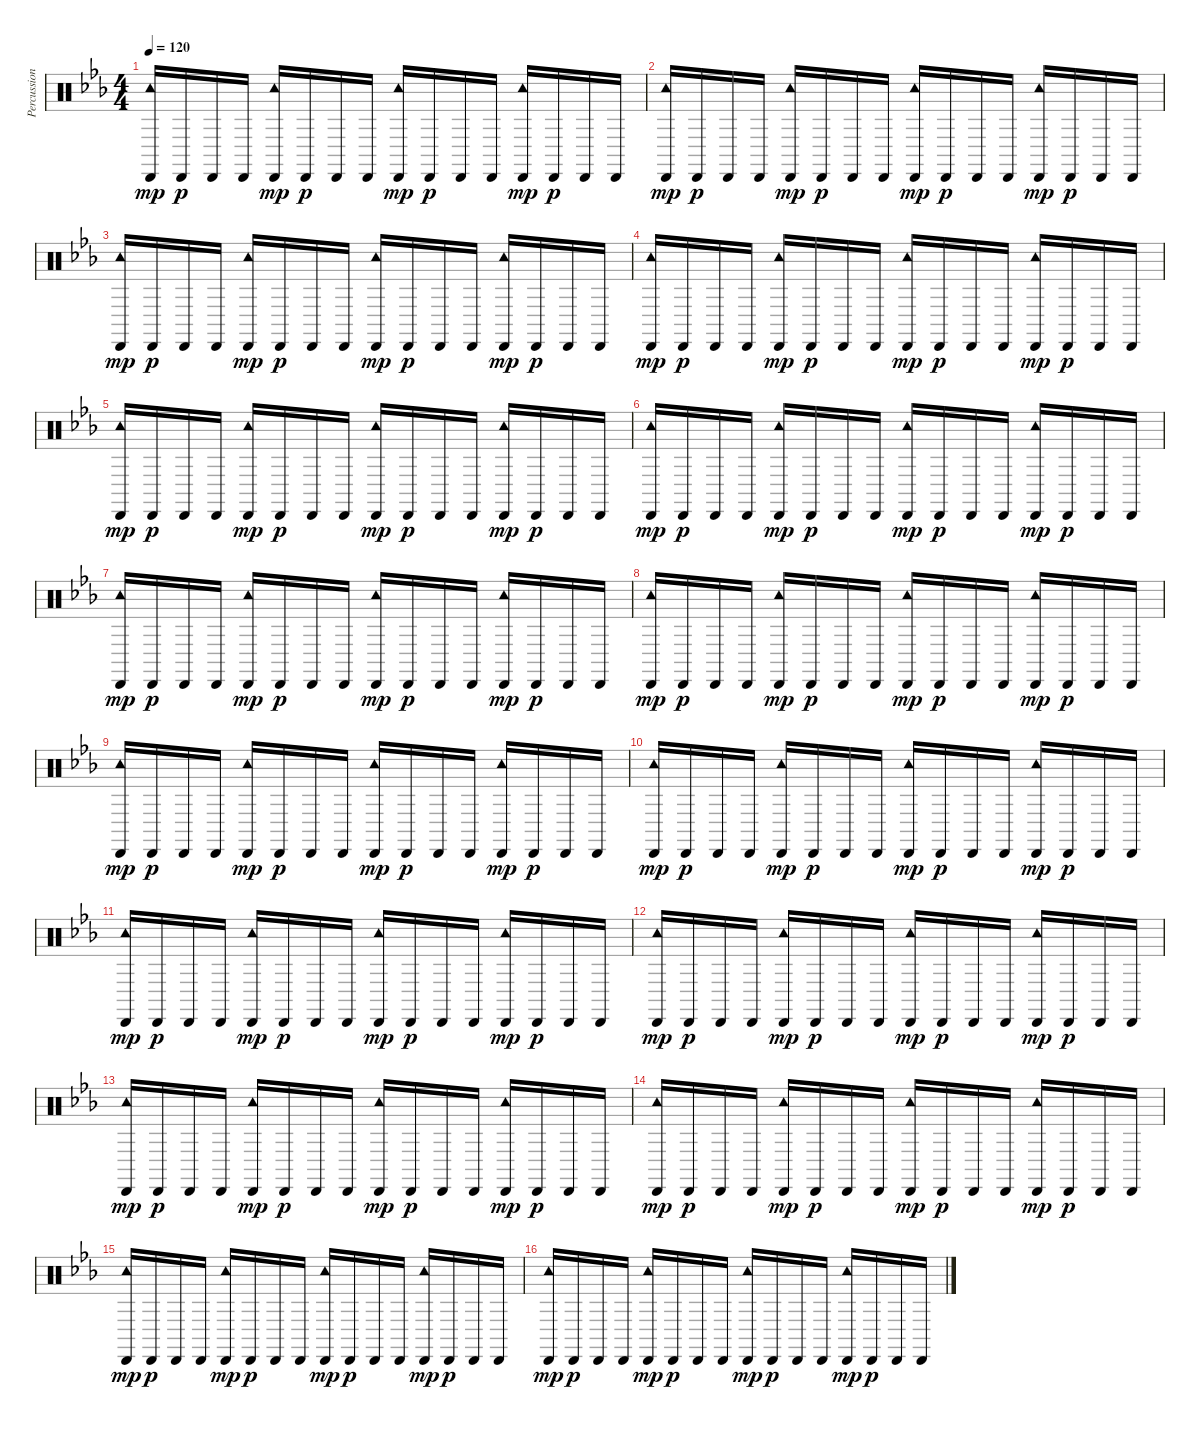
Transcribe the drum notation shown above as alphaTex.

\track ("Percussion" "Percussion") {instrument percussion}
\staff {score}
\articulation defaults
\ts (4 4)
\tempo 120
\clef neutral
\ks cminor
("Cabasa (hit)" "Tambourine (hit)").16{dy mp} "Cabasa (hit)".16{dy p} "Cabasa (hit)".16 "Cabasa (hit)".16 ("Cabasa (hit)" "Tambourine (hit)").16{dy mp} "Cabasa (hit)".16{dy p} "Cabasa (hit)".16 "Cabasa (hit)".16 ("Cabasa (hit)" "Tambourine (hit)").16{dy mp} "Cabasa (hit)".16{dy p} "Cabasa (hit)".16 "Cabasa (hit)".16 ("Cabasa (hit)" "Tambourine (hit)").16{dy mp} "Cabasa (hit)".16{dy p} "Cabasa (hit)".16 "Cabasa (hit)".16 |
("Cabasa (hit)" "Tambourine (hit)").16{dy mp} "Cabasa (hit)".16{dy p} "Cabasa (hit)".16 "Cabasa (hit)".16 ("Cabasa (hit)" "Tambourine (hit)").16{dy mp} "Cabasa (hit)".16{dy p} "Cabasa (hit)".16 "Cabasa (hit)".16 ("Cabasa (hit)" "Tambourine (hit)").16{dy mp} "Cabasa (hit)".16{dy p} "Cabasa (hit)".16 "Cabasa (hit)".16 ("Cabasa (hit)" "Tambourine (hit)").16{dy mp} "Cabasa (hit)".16{dy p} "Cabasa (hit)".16 "Cabasa (hit)".16 |
("Cabasa (hit)" "Tambourine (hit)").16{dy mp} "Cabasa (hit)".16{dy p} "Cabasa (hit)".16 "Cabasa (hit)".16 ("Cabasa (hit)" "Tambourine (hit)").16{dy mp} "Cabasa (hit)".16{dy p} "Cabasa (hit)".16 "Cabasa (hit)".16 ("Cabasa (hit)" "Tambourine (hit)").16{dy mp} "Cabasa (hit)".16{dy p} "Cabasa (hit)".16 "Cabasa (hit)".16 ("Cabasa (hit)" "Tambourine (hit)").16{dy mp} "Cabasa (hit)".16{dy p} "Cabasa (hit)".16 "Cabasa (hit)".16 |
("Cabasa (hit)" "Tambourine (hit)").16{dy mp} "Cabasa (hit)".16{dy p} "Cabasa (hit)".16 "Cabasa (hit)".16 ("Cabasa (hit)" "Tambourine (hit)").16{dy mp} "Cabasa (hit)".16{dy p} "Cabasa (hit)".16 "Cabasa (hit)".16 ("Cabasa (hit)" "Tambourine (hit)").16{dy mp} "Cabasa (hit)".16{dy p} "Cabasa (hit)".16 "Cabasa (hit)".16 ("Cabasa (hit)" "Tambourine (hit)").16{dy mp} "Cabasa (hit)".16{dy p} "Cabasa (hit)".16 "Cabasa (hit)".16 |
("Cabasa (hit)" "Tambourine (hit)").16{dy mp} "Cabasa (hit)".16{dy p} "Cabasa (hit)".16 "Cabasa (hit)".16 ("Cabasa (hit)" "Tambourine (hit)").16{dy mp} "Cabasa (hit)".16{dy p} "Cabasa (hit)".16 "Cabasa (hit)".16 ("Cabasa (hit)" "Tambourine (hit)").16{dy mp} "Cabasa (hit)".16{dy p} "Cabasa (hit)".16 "Cabasa (hit)".16 ("Cabasa (hit)" "Tambourine (hit)").16{dy mp} "Cabasa (hit)".16{dy p} "Cabasa (hit)".16 "Cabasa (hit)".16 |
("Cabasa (hit)" "Tambourine (hit)").16{dy mp} "Cabasa (hit)".16{dy p} "Cabasa (hit)".16 "Cabasa (hit)".16 ("Cabasa (hit)" "Tambourine (hit)").16{dy mp} "Cabasa (hit)".16{dy p} "Cabasa (hit)".16 "Cabasa (hit)".16 ("Cabasa (hit)" "Tambourine (hit)").16{dy mp} "Cabasa (hit)".16{dy p} "Cabasa (hit)".16 "Cabasa (hit)".16 ("Cabasa (hit)" "Tambourine (hit)").16{dy mp} "Cabasa (hit)".16{dy p} "Cabasa (hit)".16 "Cabasa (hit)".16 |
("Cabasa (hit)" "Tambourine (hit)").16{dy mp} "Cabasa (hit)".16{dy p} "Cabasa (hit)".16 "Cabasa (hit)".16 ("Cabasa (hit)" "Tambourine (hit)").16{dy mp} "Cabasa (hit)".16{dy p} "Cabasa (hit)".16 "Cabasa (hit)".16 ("Cabasa (hit)" "Tambourine (hit)").16{dy mp} "Cabasa (hit)".16{dy p} "Cabasa (hit)".16 "Cabasa (hit)".16 ("Cabasa (hit)" "Tambourine (hit)").16{dy mp} "Cabasa (hit)".16{dy p} "Cabasa (hit)".16 "Cabasa (hit)".16 |
("Cabasa (hit)" "Tambourine (hit)").16{dy mp} "Cabasa (hit)".16{dy p} "Cabasa (hit)".16 "Cabasa (hit)".16 ("Cabasa (hit)" "Tambourine (hit)").16{dy mp} "Cabasa (hit)".16{dy p} "Cabasa (hit)".16 "Cabasa (hit)".16 ("Cabasa (hit)" "Tambourine (hit)").16{dy mp} "Cabasa (hit)".16{dy p} "Cabasa (hit)".16 "Cabasa (hit)".16 ("Cabasa (hit)" "Tambourine (hit)").16{dy mp} "Cabasa (hit)".16{dy p} "Cabasa (hit)".16 "Cabasa (hit)".16 |
("Cabasa (hit)" "Tambourine (hit)").16{dy mp} "Cabasa (hit)".16{dy p} "Cabasa (hit)".16 "Cabasa (hit)".16 ("Cabasa (hit)" "Tambourine (hit)").16{dy mp} "Cabasa (hit)".16{dy p} "Cabasa (hit)".16 "Cabasa (hit)".16 ("Cabasa (hit)" "Tambourine (hit)").16{dy mp} "Cabasa (hit)".16{dy p} "Cabasa (hit)".16 "Cabasa (hit)".16 ("Cabasa (hit)" "Tambourine (hit)").16{dy mp} "Cabasa (hit)".16{dy p} "Cabasa (hit)".16 "Cabasa (hit)".16 |
("Cabasa (hit)" "Tambourine (hit)").16{dy mp} "Cabasa (hit)".16{dy p} "Cabasa (hit)".16 "Cabasa (hit)".16 ("Cabasa (hit)" "Tambourine (hit)").16{dy mp} "Cabasa (hit)".16{dy p} "Cabasa (hit)".16 "Cabasa (hit)".16 ("Cabasa (hit)" "Tambourine (hit)").16{dy mp} "Cabasa (hit)".16{dy p} "Cabasa (hit)".16 "Cabasa (hit)".16 ("Cabasa (hit)" "Tambourine (hit)").16{dy mp} "Cabasa (hit)".16{dy p} "Cabasa (hit)".16 "Cabasa (hit)".16 |
("Cabasa (hit)" "Tambourine (hit)").16{dy mp} "Cabasa (hit)".16{dy p} "Cabasa (hit)".16 "Cabasa (hit)".16 ("Cabasa (hit)" "Tambourine (hit)").16{dy mp} "Cabasa (hit)".16{dy p} "Cabasa (hit)".16 "Cabasa (hit)".16 ("Cabasa (hit)" "Tambourine (hit)").16{dy mp} "Cabasa (hit)".16{dy p} "Cabasa (hit)".16 "Cabasa (hit)".16 ("Cabasa (hit)" "Tambourine (hit)").16{dy mp} "Cabasa (hit)".16{dy p} "Cabasa (hit)".16 "Cabasa (hit)".16 |
("Cabasa (hit)" "Tambourine (hit)").16{dy mp} "Cabasa (hit)".16{dy p} "Cabasa (hit)".16 "Cabasa (hit)".16 ("Cabasa (hit)" "Tambourine (hit)").16{dy mp} "Cabasa (hit)".16{dy p} "Cabasa (hit)".16 "Cabasa (hit)".16 ("Cabasa (hit)" "Tambourine (hit)").16{dy mp} "Cabasa (hit)".16{dy p} "Cabasa (hit)".16 "Cabasa (hit)".16 ("Cabasa (hit)" "Tambourine (hit)").16{dy mp} "Cabasa (hit)".16{dy p} "Cabasa (hit)".16 "Cabasa (hit)".16 |
("Cabasa (hit)" "Tambourine (hit)").16{dy mp} "Cabasa (hit)".16{dy p} "Cabasa (hit)".16 "Cabasa (hit)".16 ("Cabasa (hit)" "Tambourine (hit)").16{dy mp} "Cabasa (hit)".16{dy p} "Cabasa (hit)".16 "Cabasa (hit)".16 ("Cabasa (hit)" "Tambourine (hit)").16{dy mp} "Cabasa (hit)".16{dy p} "Cabasa (hit)".16 "Cabasa (hit)".16 ("Cabasa (hit)" "Tambourine (hit)").16{dy mp} "Cabasa (hit)".16{dy p} "Cabasa (hit)".16 "Cabasa (hit)".16 |
("Cabasa (hit)" "Tambourine (hit)").16{dy mp} "Cabasa (hit)".16{dy p} "Cabasa (hit)".16 "Cabasa (hit)".16 ("Cabasa (hit)" "Tambourine (hit)").16{dy mp} "Cabasa (hit)".16{dy p} "Cabasa (hit)".16 "Cabasa (hit)".16 ("Cabasa (hit)" "Tambourine (hit)").16{dy mp} "Cabasa (hit)".16{dy p} "Cabasa (hit)".16 "Cabasa (hit)".16 ("Cabasa (hit)" "Tambourine (hit)").16{dy mp} "Cabasa (hit)".16{dy p} "Cabasa (hit)".16 "Cabasa (hit)".16 |
("Cabasa (hit)" "Tambourine (hit)").16{dy mp} "Cabasa (hit)".16{dy p} "Cabasa (hit)".16 "Cabasa (hit)".16 ("Cabasa (hit)" "Tambourine (hit)").16{dy mp} "Cabasa (hit)".16{dy p} "Cabasa (hit)".16 "Cabasa (hit)".16 ("Cabasa (hit)" "Tambourine (hit)").16{dy mp} "Cabasa (hit)".16{dy p} "Cabasa (hit)".16 "Cabasa (hit)".16 ("Cabasa (hit)" "Tambourine (hit)").16{dy mp} "Cabasa (hit)".16{dy p} "Cabasa (hit)".16 "Cabasa (hit)".16 |
("Cabasa (hit)" "Tambourine (hit)").16{dy mp} "Cabasa (hit)".16{dy p} "Cabasa (hit)".16 "Cabasa (hit)".16 ("Cabasa (hit)" "Tambourine (hit)").16{dy mp} "Cabasa (hit)".16{dy p} "Cabasa (hit)".16 "Cabasa (hit)".16 ("Cabasa (hit)" "Tambourine (hit)").16{dy mp} "Cabasa (hit)".16{dy p} "Cabasa (hit)".16 "Cabasa (hit)".16 ("Cabasa (hit)" "Tambourine (hit)").16{dy mp} "Cabasa (hit)".16{dy p} "Cabasa (hit)".16 "Cabasa (hit)".16
